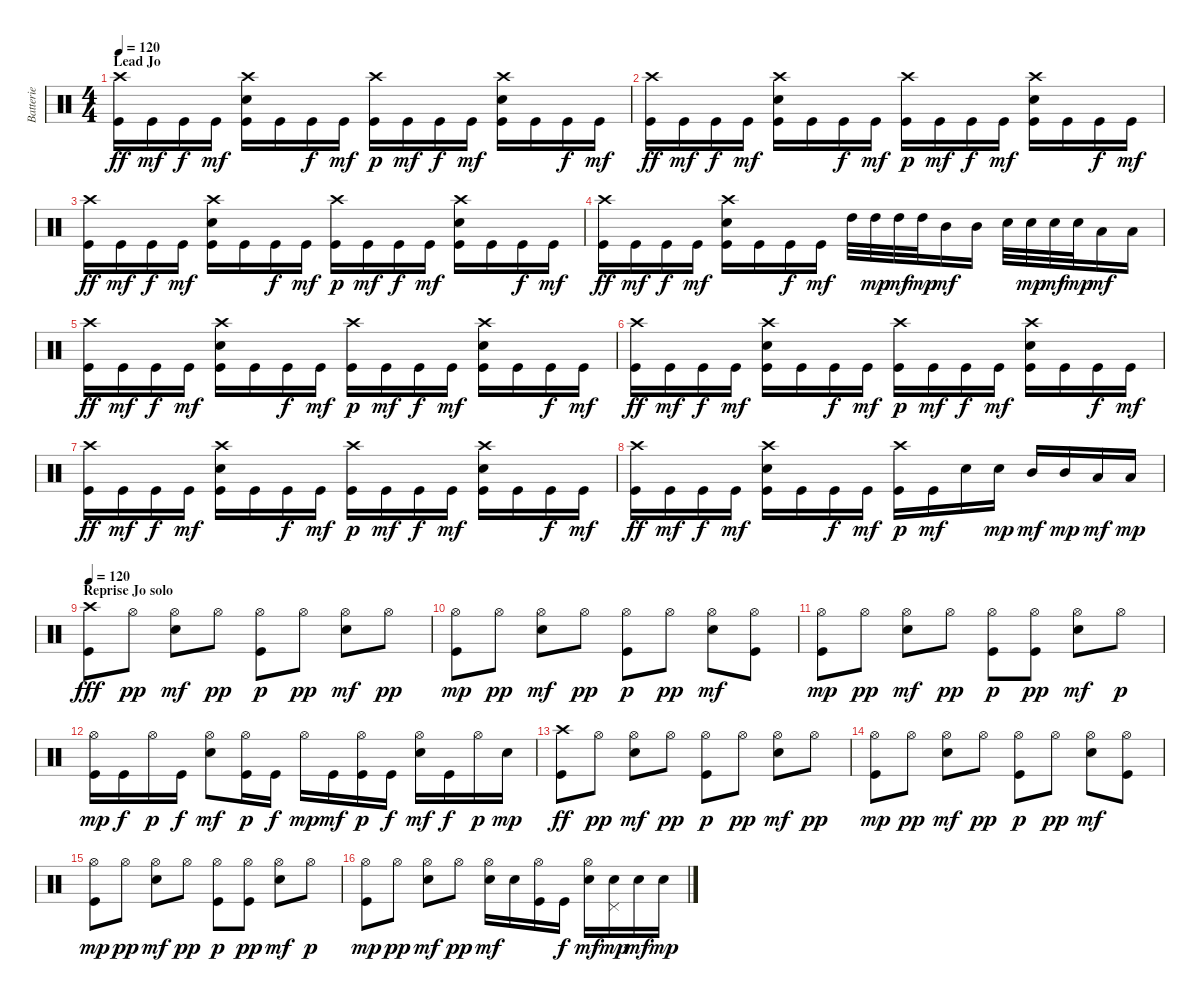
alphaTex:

\track ("Batterie" "Batterie") {instrument percussion}
\staff {score}
\articulation defaults
\ts (4 4)
\section ("" "Lead Jo")
\tempo 120
\clef neutral
\ks c
("Crash high (hit)" "Kick (hit)").16{dy ff} "Kick (hit)".16{dy mf} "Kick (hit)".16{dy f} "Kick (hit)".16{dy mf} ("Crash high (hit)" "Electric Snare (hit)" "Kick (hit)").16 "Kick (hit)".16 "Kick (hit)".16{dy f} "Kick (hit)".16{dy mf} ("Crash high (hit)" "Kick (hit)").16{dy p} "Kick (hit)".16{dy mf} "Kick (hit)".16{dy f} "Kick (hit)".16{dy mf} ("Crash high (hit)" "Electric Snare (hit)" "Kick (hit)").16 "Kick (hit)".16 "Kick (hit)".16{dy f} "Kick (hit)".16{dy mf} |
("Crash high (hit)" "Kick (hit)").16{dy ff} "Kick (hit)".16{dy mf} "Kick (hit)".16{dy f} "Kick (hit)".16{dy mf} ("Crash high (hit)" "Electric Snare (hit)" "Kick (hit)").16 "Kick (hit)".16 "Kick (hit)".16{dy f} "Kick (hit)".16{dy mf} ("Crash high (hit)" "Kick (hit)").16{dy p} "Kick (hit)".16{dy mf} "Kick (hit)".16{dy f} "Kick (hit)".16{dy mf} ("Crash high (hit)" "Electric Snare (hit)" "Kick (hit)").16 "Kick (hit)".16 "Kick (hit)".16{dy f} "Kick (hit)".16{dy mf} |
("Crash high (hit)" "Kick (hit)").16{dy ff} "Kick (hit)".16{dy mf} "Kick (hit)".16{dy f} "Kick (hit)".16{dy mf} ("Crash high (hit)" "Electric Snare (hit)" "Kick (hit)").16 "Kick (hit)".16 "Kick (hit)".16{dy f} "Kick (hit)".16{dy mf} ("Crash high (hit)" "Kick (hit)").16{dy p} "Kick (hit)".16{dy mf} "Kick (hit)".16{dy f} "Kick (hit)".16{dy mf} ("Crash high (hit)" "Electric Snare (hit)" "Kick (hit)").16 "Kick (hit)".16 "Kick (hit)".16{dy f} "Kick (hit)".16{dy mf} |
("Crash high (hit)" "Kick (hit)").16{dy ff} "Kick (hit)".16{dy mf} "Kick (hit)".16{dy f} "Kick (hit)".16{dy mf} ("Crash high (hit)" "Electric Snare (hit)" "Kick (hit)").16 "Kick (hit)".16 "Kick (hit)".16{dy f} "Kick (hit)".16{dy mf} "High Tom (hit)".32 "High Tom (hit)".32{dy mp} "High Tom (hit)".32{dy mf} "High Tom (hit)".32{dy mp} "Mid Tom (hit)".16{dy mf} "Mid Tom (hit)".16 "Electric Snare (hit)".32 "Electric Snare (hit)".32{dy mp} "Electric Snare (hit)".32{dy mf} "Electric Snare (hit)".32{dy mp} "Low Tom (hit)".16{dy mf} "Low Tom (hit)".16 |
("Crash high (hit)" "Kick (hit)").16{dy ff} "Kick (hit)".16{dy mf} "Kick (hit)".16{dy f} "Kick (hit)".16{dy mf} ("Crash high (hit)" "Electric Snare (hit)" "Kick (hit)").16 "Kick (hit)".16 "Kick (hit)".16{dy f} "Kick (hit)".16{dy mf} ("Crash high (hit)" "Kick (hit)").16{dy p} "Kick (hit)".16{dy mf} "Kick (hit)".16{dy f} "Kick (hit)".16{dy mf} ("Crash high (hit)" "Electric Snare (hit)" "Kick (hit)").16 "Kick (hit)".16 "Kick (hit)".16{dy f} "Kick (hit)".16{dy mf} |
("Crash high (hit)" "Kick (hit)").16{dy ff} "Kick (hit)".16{dy mf} "Kick (hit)".16{dy f} "Kick (hit)".16{dy mf} ("Crash high (hit)" "Electric Snare (hit)" "Kick (hit)").16 "Kick (hit)".16 "Kick (hit)".16{dy f} "Kick (hit)".16{dy mf} ("Crash high (hit)" "Kick (hit)").16{dy p} "Kick (hit)".16{dy mf} "Kick (hit)".16{dy f} "Kick (hit)".16{dy mf} ("Crash high (hit)" "Electric Snare (hit)" "Kick (hit)").16 "Kick (hit)".16 "Kick (hit)".16{dy f} "Kick (hit)".16{dy mf} |
("Crash high (hit)" "Kick (hit)").16{dy ff} "Kick (hit)".16{dy mf} "Kick (hit)".16{dy f} "Kick (hit)".16{dy mf} ("Crash high (hit)" "Electric Snare (hit)" "Kick (hit)").16 "Kick (hit)".16 "Kick (hit)".16{dy f} "Kick (hit)".16{dy mf} ("Crash high (hit)" "Kick (hit)").16{dy p} "Kick (hit)".16{dy mf} "Kick (hit)".16{dy f} "Kick (hit)".16{dy mf} ("Crash high (hit)" "Electric Snare (hit)" "Kick (hit)").16 "Kick (hit)".16 "Kick (hit)".16{dy f} "Kick (hit)".16{dy mf} |
("Crash high (hit)" "Kick (hit)").16{dy ff} "Kick (hit)".16{dy mf} "Kick (hit)".16{dy f} "Kick (hit)".16{dy mf} ("Crash high (hit)" "Electric Snare (hit)" "Kick (hit)").16 "Kick (hit)".16 "Kick (hit)".16{dy f} "Kick (hit)".16{dy mf} ("Crash high (hit)" "Kick (hit)").16{dy p} "Kick (hit)".16{dy mf} "Electric Snare (hit)".16 "Electric Snare (hit)".16{dy mp} "Mid Tom (hit)".16{dy mf} "Mid Tom (hit)".16{dy mp} "Low Tom (hit)".16{dy mf} "Low Tom (hit)".16{dy mp} |
\section ("" "Reprise Jo solo")
\tempo 120
("Crash high (hit)" "Kick (hit)").8{dy fff} "Hi-Hat (open)".8{dy pp} ("Hi-Hat (open)" "Electric Snare (hit)").8{dy mf} "Hi-Hat (open)".8{dy pp} ("Hi-Hat (open)" "Kick (hit)").8{dy p} "Hi-Hat (open)".8{dy pp} ("Hi-Hat (open)" "Electric Snare (hit)").8{dy mf} "Hi-Hat (open)".8{dy pp} |
("Hi-Hat (open)" "Kick (hit)").8{dy mp} "Hi-Hat (open)".8{dy pp} ("Hi-Hat (open)" "Electric Snare (hit)").8{dy mf} "Hi-Hat (open)".8{dy pp} ("Hi-Hat (open)" "Kick (hit)").8{dy p} "Hi-Hat (open)".8{dy pp} ("Hi-Hat (open)" "Electric Snare (hit)").8{dy mf} ("Hi-Hat (open)" "Kick (hit)").8 |
("Hi-Hat (open)" "Kick (hit)").8{dy mp} "Hi-Hat (open)".8{dy pp} ("Hi-Hat (open)" "Electric Snare (hit)").8{dy mf} "Hi-Hat (open)".8{dy pp} ("Hi-Hat (open)" "Kick (hit)").8{dy p} ("Hi-Hat (open)" "Kick (hit)").8{dy pp} ("Hi-Hat (open)" "Electric Snare (hit)").8{dy mf} "Hi-Hat (open)".8{dy p} |
("Hi-Hat (open)" "Kick (hit)").16{dy mp} "Kick (hit)".16{dy f} "Hi-Hat (open)".16{dy p} "Kick (hit)".16{dy f} ("Hi-Hat (open)" "Electric Snare (hit)").8{dy mf} ("Hi-Hat (open)" "Kick (hit)").16{dy p} "Kick (hit)".16{dy f} "Hi-Hat (open)".16{dy mp} "Kick (hit)".16{dy mf} ("Hi-Hat (open)" "Kick (hit)").16{dy p} "Kick (hit)".16{dy f} ("Hi-Hat (open)" "Electric Snare (hit)").16{dy mf} "Kick (hit)".16{dy f} "Hi-Hat (open)".16{dy p} "Electric Snare (hit)".16{dy mp} |
("Crash high (hit)" "Kick (hit)").8{dy ff} "Hi-Hat (open)".8{dy pp} ("Hi-Hat (open)" "Electric Snare (hit)").8{dy mf} "Hi-Hat (open)".8{dy pp} ("Hi-Hat (open)" "Kick (hit)").8{dy p} "Hi-Hat (open)".8{dy pp} ("Hi-Hat (open)" "Electric Snare (hit)").8{dy mf} "Hi-Hat (open)".8{dy pp} |
("Hi-Hat (open)" "Kick (hit)").8{dy mp} "Hi-Hat (open)".8{dy pp} ("Hi-Hat (open)" "Electric Snare (hit)").8{dy mf} "Hi-Hat (open)".8{dy pp} ("Hi-Hat (open)" "Kick (hit)").8{dy p} "Hi-Hat (open)".8{dy pp} ("Hi-Hat (open)" "Electric Snare (hit)").8{dy mf} ("Hi-Hat (open)" "Kick (hit)").8 |
("Hi-Hat (open)" "Kick (hit)").8{dy mp} "Hi-Hat (open)".8{dy pp} ("Hi-Hat (open)" "Electric Snare (hit)").8{dy mf} "Hi-Hat (open)".8{dy pp} ("Hi-Hat (open)" "Kick (hit)").8{dy p} ("Hi-Hat (open)" "Kick (hit)").8{dy pp} ("Hi-Hat (open)" "Electric Snare (hit)").8{dy mf} "Hi-Hat (open)".8{dy p} |
("Hi-Hat (open)" "Kick (hit)").8{dy mp} "Hi-Hat (open)".8{dy pp} ("Hi-Hat (open)" "Electric Snare (hit)").8{dy mf} "Hi-Hat (open)".8{dy pp} ("Hi-Hat (open)" "Electric Snare (hit)").16{dy mf} "Electric Snare (hit)".16 ("Hi-Hat (open)" "Kick (hit)").16 "Kick (hit)".16{dy f} ("Hi-Hat (open)" "Electric Snare (hit)").16{dy mf} ("Pedal Hi-Hat (hit)" "Electric Snare (hit)").16{dy mp} "Electric Snare (hit)".16{dy mf} "Electric Snare (hit)".16{dy mp}
